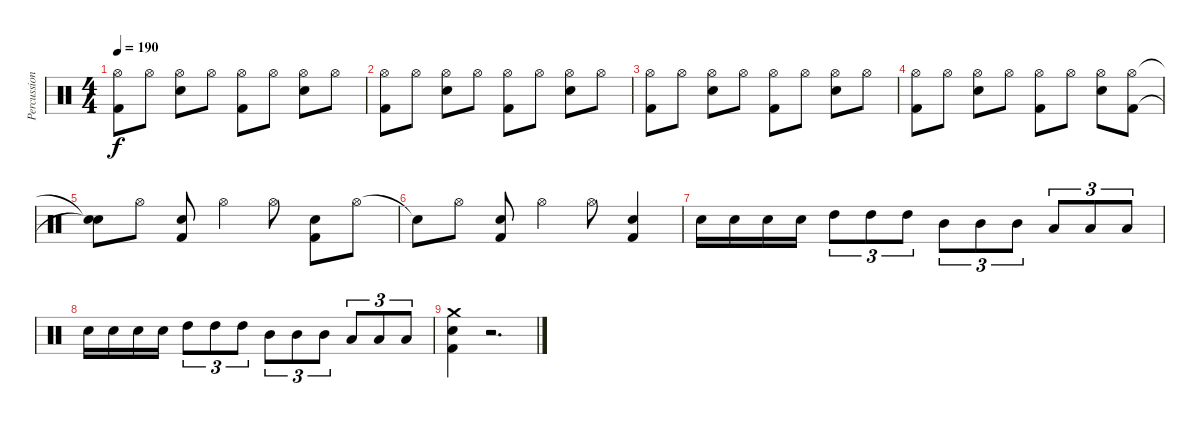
\track ("Percussions" "Percussion") {instrument percussion}
\staff {score}
\articulation defaults
\ts (4 4)
\tempo 190
\clef neutral
\ks c
("Hi-Hat (open)" "Kick (hit) 2").8{dy f} "Hi-Hat (open)".8 ("Hi-Hat (open)" "Snare (hit) 2").8 "Hi-Hat (open)".8 ("Hi-Hat (open)" "Kick (hit) 2").8 "Hi-Hat (open)".8 ("Hi-Hat (open)" "Snare (hit) 2").8 "Hi-Hat (open)".8 |
("Hi-Hat (open)" "Kick (hit) 2").8 "Hi-Hat (open)".8 ("Hi-Hat (open)" "Snare (hit) 2").8 "Hi-Hat (open)".8 ("Hi-Hat (open)" "Kick (hit) 2").8 "Hi-Hat (open)".8 ("Hi-Hat (open)" "Snare (hit) 2").8 "Hi-Hat (open)".8 |
("Hi-Hat (open)" "Kick (hit) 2").8 "Hi-Hat (open)".8 ("Hi-Hat (open)" "Snare (hit) 2").8 "Hi-Hat (open)".8 ("Hi-Hat (open)" "Kick (hit) 2").8 "Hi-Hat (open)".8 ("Hi-Hat (open)" "Snare (hit) 2").8 "Hi-Hat (open)".8 |
("Hi-Hat (open)" "Kick (hit) 2").8 "Hi-Hat (open)".8 ("Hi-Hat (open)" "Snare (hit) 2").8 "Hi-Hat (open)".8 ("Hi-Hat (open)" "Kick (hit) 2").8 "Hi-Hat (open)".8 ("Hi-Hat (open)" "Snare (hit) 2").8 ("Hi-Hat (open)" "Kick (hit) 2").8 |
("Snare (hit)"{t} "Snare (hit)"{t}).8 "Hi-Hat (open)".8 ("Snare (hit) 2" "Kick (hit) 2").8 "Hi-Hat (open)".4 "Hi-Hat (open)".8 ("Snare (hit) 2" "Kick (hit) 2").8 "Hi-Hat (open)".8 |
"Snare (hit)"{t}.8 "Hi-Hat (open)".8 ("Snare (hit) 2" "Kick (hit) 2").8 "Hi-Hat (open)".4 "Hi-Hat (open)".8 ("Snare (hit) 2" "Kick (hit) 2").4 |
"Snare (hit) 2".16 "Snare (hit) 2".16 "Snare (hit) 2".16 "Snare (hit) 2".16 "High Tom (hit)".8{tu (3 2)} "High Tom (hit)".8{tu (3 2)} "High Tom (hit)".8{tu (3 2)} "Mid Tom (hit)".8{tu (3 2)} "Mid Tom (hit)".8{tu (3 2)} "Mid Tom (hit)".8{tu (3 2)} "Low Tom (hit)".8{tu (3 2)} "Low Tom (hit)".8{tu (3 2)} "Low Tom (hit)".8{tu (3 2)} |
"Snare (hit) 2".16 "Snare (hit) 2".16 "Snare (hit) 2".16 "Snare (hit) 2".16 "High Tom (hit)".8{tu (3 2)} "High Tom (hit)".8{tu (3 2)} "High Tom (hit)".8{tu (3 2)} "Mid Tom (hit)".8{tu (3 2)} "Mid Tom (hit)".8{tu (3 2)} "Mid Tom (hit)".8{tu (3 2)} "Low Tom (hit)".8{tu (3 2)} "Low Tom (hit)".8{tu (3 2)} "Low Tom (hit)".8{tu (3 2)} |
("Crash medium (hit)" "Snare (hit) 2" "Kick (hit) 2").4 r.2{d}
